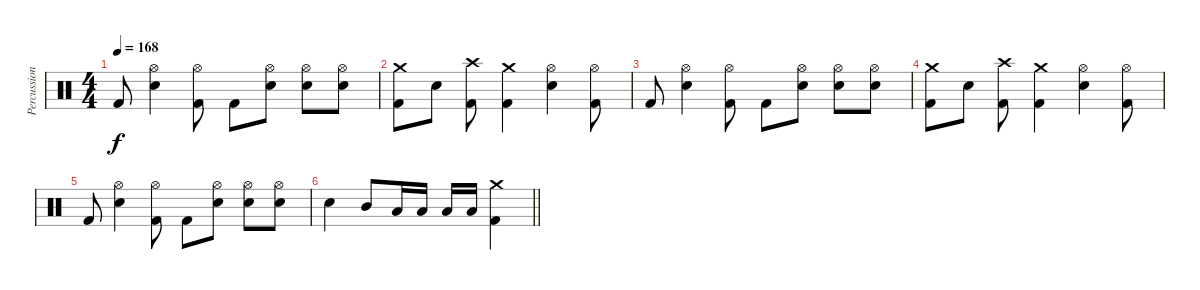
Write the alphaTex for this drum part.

\track ("Percussion" "Percussion") {instrument percussion}
\staff {score}
\articulation defaults
\ts (4 4)
\tempo 168
\clef neutral
\ks c "Kick (hit) 2".8{dy f}
("Hi-Hat (open)" "Snare (hit) 2").4 ("Hi-Hat (open)" "Kick (hit) 2").8 "Kick (hit) 2".8 ("Hi-Hat (open)" "Snare (hit) 2").8 ("Hi-Hat (open)" "Snare (hit) 2").8 ("Hi-Hat (open)" "Snare (hit) 2").8 |
("Crash medium (hit)" "Kick (hit) 2").8 "Snare (hit) 2".8 ("Crash high (hit)" "Kick (hit) 2").8 ("Crash medium (hit)" "Kick (hit) 2").4 ("Hi-Hat (open)" "Snare (hit) 2").4 ("Hi-Hat (open)" "Kick (hit) 2").8 |
"Kick (hit) 2".8 ("Hi-Hat (open)" "Snare (hit) 2").4 ("Hi-Hat (open)" "Kick (hit) 2").8 "Kick (hit) 2".8 ("Hi-Hat (open)" "Snare (hit) 2").8 ("Hi-Hat (open)" "Snare (hit) 2").8 ("Hi-Hat (open)" "Snare (hit) 2").8 |
("Crash medium (hit)" "Kick (hit) 2").8 "Snare (hit) 2".8 ("Crash high (hit)" "Kick (hit) 2").8 ("Crash medium (hit)" "Kick (hit) 2").4 ("Hi-Hat (open)" "Snare (hit) 2").4 ("Hi-Hat (open)" "Kick (hit) 2").8 |
"Kick (hit) 2".8 ("Hi-Hat (open)" "Snare (hit) 2").4 ("Hi-Hat (open)" "Kick (hit) 2").8 "Kick (hit) 2".8 ("Hi-Hat (open)" "Snare (hit) 2").8 ("Hi-Hat (open)" "Snare (hit) 2").8 ("Hi-Hat (open)" "Snare (hit) 2").8 |
\barLineRight lightlight "Snare (hit) 2".4 "Mid Tom (hit)".8 "Low Tom (hit)".16 "Low Tom (hit)".16 "Low Tom (hit)".16 "Low Tom (hit)".16
("Crash medium (hit)" "Kick (hit) 2").4
